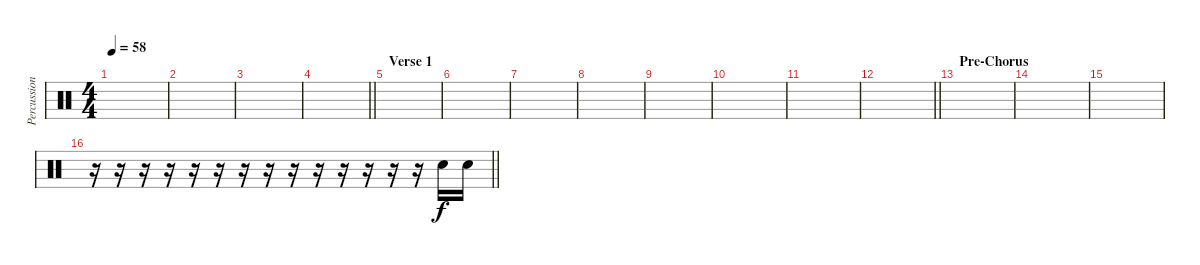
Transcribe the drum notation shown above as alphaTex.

\track ("Percussion" "Percussion") {instrument percussion}
\staff {score}
\articulation defaults
\ts (4 4)
\tempo 58
\clef neutral
\ks c
|
|
|
\barLineRight lightlight
|
\section ("" "Verse 1")
|
|
|
|
|
|
|
\barLineRight lightlight
|
\section ("" "Pre-Chorus")
|
|
|
\barLineRight lightlight
r.16 r.16 r.16 r.16 r.16 r.16 r.16 r.16 r.16 r.16 r.16 r.16 r.16 r.16 "Electric Snare (hit)".16 "Electric Snare (hit)".16
